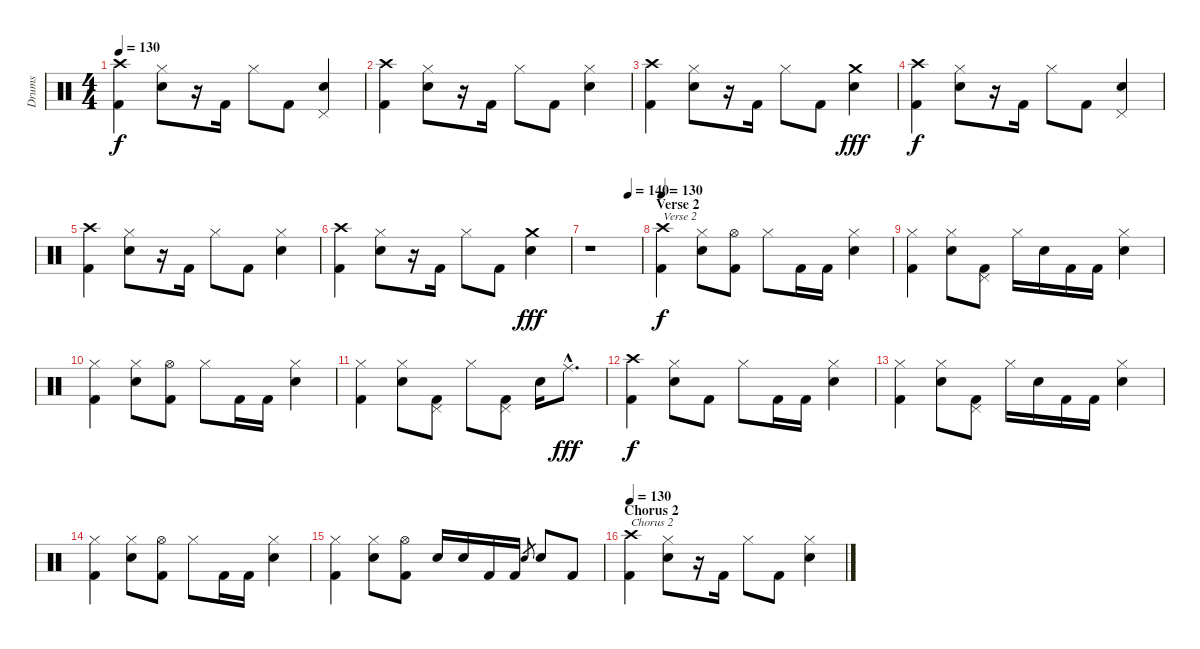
\track ("Drums" "Drums") {instrument percussion}
\staff {score}
\articulation defaults
\ts (4 4)
\tempo 130
\clef neutral
\ks c
("Crash high (hit)" "Kick (hit) 2").4{dy f} ("Hi-Hat (closed)" "Electric Snare (hit)").8 r.16 "Kick (hit) 2".16 "Hi-Hat (closed)".8 "Kick (hit) 2".8 ("Pedal Hi-Hat (hit)" "Electric Snare (hit)").4 |
("Crash high (hit)" "Kick (hit) 2").4 ("Hi-Hat (closed)" "Electric Snare (hit)").8 r.16 "Kick (hit) 2".16 "Hi-Hat (closed)".8 "Kick (hit) 2".8 ("Hi-Hat (closed)" "Electric Snare (hit)").4 |
("Crash high (hit)" "Kick (hit) 2").4 ("Hi-Hat (closed)" "Electric Snare (hit)").8 r.16 "Kick (hit) 2".16 "Hi-Hat (closed)".8 "Kick (hit) 2".8 ("Crash medium (hit)" "Electric Snare (hit)").4{dy fff} |
("Crash high (hit)" "Kick (hit) 2").4{dy f} ("Hi-Hat (closed)" "Electric Snare (hit)").8 r.16 "Kick (hit) 2".16 "Hi-Hat (closed)".8 "Kick (hit) 2".8 ("Pedal Hi-Hat (hit)" "Electric Snare (hit)").4 |
("Crash high (hit)" "Kick (hit) 2").4 ("Hi-Hat (closed)" "Electric Snare (hit)").8 r.16 "Kick (hit) 2".16 "Hi-Hat (closed)".8 "Kick (hit) 2".8 ("Hi-Hat (closed)" "Electric Snare (hit)").4 |
("Crash high (hit)" "Kick (hit) 2").4 ("Hi-Hat (closed)" "Electric Snare (hit)").8 r.16 "Kick (hit) 2".16 "Hi-Hat (closed)".8 "Kick (hit) 2".8 ("Crash medium (hit)" "Electric Snare (hit)").4{dy fff} |
\tempo (140 0.75)
r.1 |
\section ("" "Verse 2")
\tempo 130
("Crash high (hit)" "Kick (hit) 2").4{txt "Verse 2" dy f} ("Hi-Hat (closed)" "Electric Snare (hit)").8 ("Hi-Hat (open)" "Kick (hit) 2").8 "Hi-Hat (closed)".8 "Kick (hit) 2".16 "Kick (hit) 2".16 ("Hi-Hat (closed)" "Electric Snare (hit)").4 |
("Hi-Hat (closed)" "Kick (hit) 2").4 ("Hi-Hat (closed)" "Electric Snare (hit)").8 ("Pedal Hi-Hat (hit)" "Kick (hit) 2").8 "Hi-Hat (closed)".16 "Electric Snare (hit)".16 "Kick (hit) 2".16 "Kick (hit) 2".16 ("Hi-Hat (closed)" "Electric Snare (hit)").4 |
("Hi-Hat (closed)" "Kick (hit) 2").4 ("Hi-Hat (closed)" "Electric Snare (hit)").8 ("Hi-Hat (open)" "Kick (hit) 2").8 "Hi-Hat (closed)".8 "Kick (hit) 2".16 "Kick (hit) 2".16 ("Hi-Hat (closed)" "Electric Snare (hit)").4 |
("Hi-Hat (closed)" "Kick (hit) 2").4 ("Hi-Hat (closed)" "Electric Snare (hit)").8 ("Pedal Hi-Hat (hit)" "Kick (hit) 2").8 "Hi-Hat (closed)".8 ("Pedal Hi-Hat (hit)" "Kick (hit) 2").8 "Electric Snare (hit)".16 "Ride (middle)"{hac}.8{d dy fff} |
("Crash high (hit)" "Kick (hit) 2").4{dy f} ("Hi-Hat (closed)" "Electric Snare (hit)").8 "Kick (hit) 2".8 "Hi-Hat (closed)".8 "Kick (hit) 2".16 "Kick (hit) 2".16 ("Hi-Hat (closed)" "Electric Snare (hit)").4 |
("Hi-Hat (closed)" "Kick (hit) 2").4 ("Hi-Hat (closed)" "Electric Snare (hit)").8 ("Pedal Hi-Hat (hit)" "Kick (hit) 2").8 "Hi-Hat (closed)".16 "Electric Snare (hit)".16 "Kick (hit) 2".16 "Kick (hit) 2".16 ("Hi-Hat (closed)" "Electric Snare (hit)").4 |
("Hi-Hat (closed)" "Kick (hit) 2").4 ("Hi-Hat (closed)" "Electric Snare (hit)").8 ("Hi-Hat (open)" "Kick (hit) 2").8 "Hi-Hat (closed)".8 "Kick (hit) 2".16 "Kick (hit) 2".16 ("Hi-Hat (closed)" "Electric Snare (hit)").4 |
("Hi-Hat (closed)" "Kick (hit) 2").4 ("Hi-Hat (closed)" "Electric Snare (hit)").8 ("Hi-Hat (open)" "Kick (hit) 2").8 "Electric Snare (hit)".16 "Electric Snare (hit)".16 "Kick (hit) 2".16 "Kick (hit) 2".16 "Electric Snare (hit)".8{gr} "Electric Snare (hit)".8 "Kick (hit) 2".8 |
\section ("" "Chorus 2")
\tempo 130
("Crash high (hit)" "Kick (hit) 2").4{txt "Chorus 2"} ("Hi-Hat (closed)" "Electric Snare (hit)").8 r.16 "Kick (hit) 2".16 "Hi-Hat (closed)".8 "Kick (hit) 2".8 ("Hi-Hat (closed)" "Electric Snare (hit)").4
